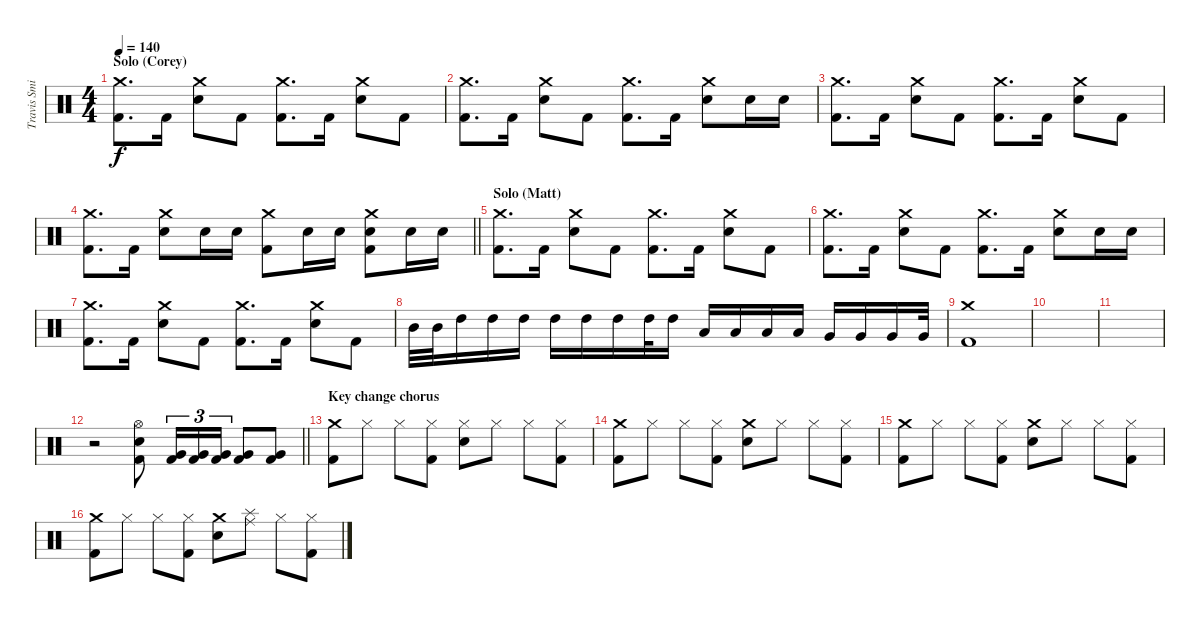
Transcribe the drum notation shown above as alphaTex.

\track ("Travis Smith" "Travis Smi") {instrument percussion}
\staff {score}
\articulation defaults
\ts (4 4)
\section ("" "Solo (Corey)")
\tempo 140
\clef neutral
\ks c
("Crash medium (hit)" "Kick (hit) 2").8{d dy f} "Kick (hit) 2".16 ("Crash medium (hit)" "Electric Snare (hit)").8 "Kick (hit) 2".8 ("Crash medium (hit)" "Kick (hit) 2").8{d} "Kick (hit) 2".16 ("Crash medium (hit)" "Electric Snare (hit)").8 "Kick (hit) 2".8 |
("Crash medium (hit)" "Kick (hit) 2").8{d} "Kick (hit) 2".16 ("Crash medium (hit)" "Electric Snare (hit)").8 "Kick (hit) 2".8 ("Crash medium (hit)" "Kick (hit) 2").8{d} "Kick (hit) 2".16 ("Crash medium (hit)" "Electric Snare (hit)").8 "Electric Snare (hit)".16 "Electric Snare (hit)".16 |
("Crash medium (hit)" "Kick (hit) 2").8{d} "Kick (hit) 2".16 ("Crash medium (hit)" "Electric Snare (hit)").8 "Kick (hit) 2".8 ("Crash medium (hit)" "Kick (hit) 2").8{d} "Kick (hit) 2".16 ("Crash medium (hit)" "Electric Snare (hit)").8 "Kick (hit) 2".8 |
\barLineRight lightlight
("Crash medium (hit)" "Kick (hit) 2").8{d} "Kick (hit) 2".16 ("Crash medium (hit)" "Electric Snare (hit)").8 "Electric Snare (hit)".16 "Electric Snare (hit)".16 ("Crash medium (hit)" "Kick (hit) 2").8 "Electric Snare (hit)".16 "Electric Snare (hit)".16 ("Crash medium (hit)" "Electric Snare (hit)" "Kick (hit) 2").8 "Electric Snare (hit)".16 "Electric Snare (hit)".16 |
\section ("" "Solo (Matt)")
("Crash medium (hit)" "Kick (hit) 2").8{d} "Kick (hit) 2".16 ("Crash medium (hit)" "Electric Snare (hit)").8 "Kick (hit) 2".8 ("Crash medium (hit)" "Kick (hit) 2").8{d} "Kick (hit) 2".16 ("Crash medium (hit)" "Electric Snare (hit)").8 "Kick (hit) 2".8 |
("Crash medium (hit)" "Kick (hit) 2").8{d} "Kick (hit) 2".16 ("Crash medium (hit)" "Electric Snare (hit)").8 "Kick (hit) 2".8 ("Crash medium (hit)" "Kick (hit) 2").8{d} "Kick (hit) 2".16 ("Crash medium (hit)" "Electric Snare (hit)").8 "Electric Snare (hit)".16 "Electric Snare (hit)".16 |
("Crash medium (hit)" "Kick (hit) 2").8{d} "Kick (hit) 2".16 ("Crash medium (hit)" "Electric Snare (hit)").8 "Kick (hit) 2".8 ("Crash medium (hit)" "Kick (hit) 2").8{d} "Kick (hit) 2".16 ("Crash medium (hit)" "Electric Snare (hit)").8 "Kick (hit) 2".8 |
"Mid Tom (hit)".32{volume 16} "Mid Tom (hit)".32 "High Tom (hit)".16 "High Tom (hit)".16 "High Tom (hit)".16 "High Tom (hit)".16 "High Tom (hit)".16 "High Tom (hit)".16 "High Tom (hit)".32 "High Tom (hit)".16 "Low Tom (hit)".16 "Low Tom (hit)".16 "Low Tom (hit)".16 "Low Tom (hit)".16 "Very Low Tom (hit)".16 "Very Low Tom (hit)".16 "Very Low Tom (hit)".16 "Very Low Tom (hit)".32 |
("Crash medium (hit)" "Kick (hit) 2").1 |
|
|
\barLineRight lightlight
r.2 ("Hi-Hat (open)" "Electric Snare (hit)" "Kick (hit) 2").8 ("Very Low Tom (hit)" "Kick (hit) 2").16{tu (3 2)} ("Very Low Tom (hit)" "Kick (hit) 2").16{tu (3 2)} ("Very Low Tom (hit)" "Kick (hit) 2").16{tu (3 2)} ("Very Low Tom (hit)" "Kick (hit) 2").8 ("Very Low Tom (hit)" "Kick (hit) 2").8 |
\section ("" "Key change chorus")
("Crash medium (hit)" "Kick (hit) 2").8 "Hi-Hat (closed)".8 "Hi-Hat (closed)".8 ("Hi-Hat (closed)" "Kick (hit) 2").8 ("Hi-Hat (closed)" "Electric Snare (hit)").8 "Hi-Hat (closed)".8 "Hi-Hat (closed)".8 ("Hi-Hat (closed)" "Kick (hit) 2").8 |
("Crash medium (hit)" "Kick (hit) 2").8 "Hi-Hat (closed)".8 "Hi-Hat (closed)".8 ("Hi-Hat (closed)" "Kick (hit) 2").8 ("Crash medium (hit)" "Electric Snare (hit)").8 "Hi-Hat (closed)".8 "Hi-Hat (closed)".8 ("Hi-Hat (closed)" "Kick (hit) 2").8 |
("Crash medium (hit)" "Kick (hit) 2").8 "Hi-Hat (closed)".8 "Hi-Hat (closed)".8 ("Hi-Hat (closed)" "Kick (hit) 2").8 ("Crash medium (hit)" "Electric Snare (hit)").8 "Hi-Hat (closed)".8 "Hi-Hat (closed)".8 ("Hi-Hat (closed)" "Kick (hit) 2").8 |
("Crash medium (hit)" "Kick (hit) 2").8 "Hi-Hat (closed)".8 "Hi-Hat (closed)".8 ("Hi-Hat (closed)" "Kick (hit) 2").8 ("Crash medium (hit)" "Electric Snare (hit)").8 ("Ride (middle)" "Splash (hit)").8 "Hi-Hat (closed)".8 ("Hi-Hat (closed)" "Kick (hit) 2").8
